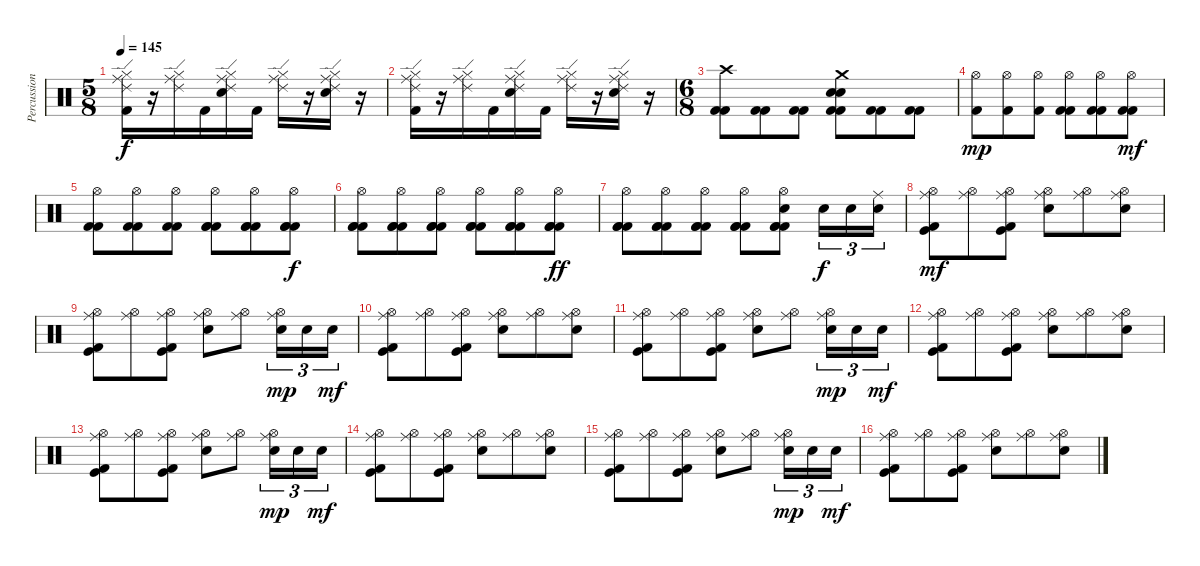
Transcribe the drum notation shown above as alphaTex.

\track ("Percussion" "Percussion") {instrument percussion}
\staff {score}
\articulation defaults
\ts (5 8)
\tempo 145
\clef neutral
\ks c
("Ride (middle)" "Kick (hit) 2" "Ride (edge) 2" "Hi-Hat (closed)").16{dy f} r.16 ("Ride (middle)" "Ride (edge) 2" "Hi-Hat (closed)").16 "Kick (hit) 2".16 ("Ride (middle)" "Electric Snare (hit)" "Ride (edge) 2" "Hi-Hat (closed)").16 "Kick (hit) 2".16 ("Ride (middle)" "Ride (edge) 2" "Hi-Hat (closed)").16 r.16 ("Ride (middle)" "Electric Snare (hit)" "Ride (edge) 2" "Hi-Hat (closed)").16 r.16 |
("Ride (middle)" "Kick (hit) 2" "Ride (edge) 2" "Hi-Hat (closed)").16 r.16 ("Ride (middle)" "Ride (edge) 2" "Hi-Hat (closed)").16 "Kick (hit) 2".16 ("Ride (middle)" "Electric Snare (hit)" "Ride (edge) 2" "Hi-Hat (closed)").16 "Kick (hit) 2".16 ("Ride (middle)" "Ride (edge) 2" "Hi-Hat (closed)").16 r.16 ("Ride (middle)" "Electric Snare (hit)" "Ride (edge) 2" "Hi-Hat (closed)").16 r.16 |
\ts (6 8)
("Crash high (hit)" "Kick (hit) 2" "Kick (hit) 2").8 ("Kick (hit) 2" "Kick (hit) 2").8 ("Kick (hit) 2" "Kick (hit) 2").8 ("Crash medium (hit)" "Electric Snare (hit)" "Electric Snare (hit)" "Kick (hit) 2" "Kick (hit) 2").8 ("Kick (hit) 2" "Kick (hit) 2").8 ("Kick (hit) 2" "Kick (hit) 2").8 |
("Hi-Hat (open)" "Kick (hit) 2").8{dy mp} ("Hi-Hat (open)" "Kick (hit) 2").8 ("Hi-Hat (open)" "Kick (hit) 2").8 ("Hi-Hat (open)" "Kick (hit) 2" "Kick (hit) 2").8 ("Hi-Hat (open)" "Kick (hit) 2" "Kick (hit) 2").8 ("Hi-Hat (open)" "Kick (hit) 2" "Kick (hit) 2").8{dy mf} |
("Hi-Hat (open)" "Kick (hit) 2" "Kick (hit) 2").8 ("Hi-Hat (open)" "Kick (hit) 2" "Kick (hit) 2").8 ("Hi-Hat (open)" "Kick (hit) 2" "Kick (hit) 2").8 ("Hi-Hat (open)" "Kick (hit) 2" "Kick (hit) 2" "Kick (hit) 2").8 ("Hi-Hat (open)" "Kick (hit) 2" "Kick (hit) 2" "Kick (hit) 2").8 ("Hi-Hat (open)" "Kick (hit) 2" "Kick (hit) 2" "Kick (hit) 2").8{dy f} |
("Hi-Hat (open)" "Kick (hit) 2" "Kick (hit) 2" "Kick (hit) 2").8 ("Hi-Hat (open)" "Kick (hit) 2" "Kick (hit) 2" "Kick (hit) 2").8 ("Hi-Hat (open)" "Kick (hit) 2" "Kick (hit) 2" "Kick (hit) 2").8 ("Hi-Hat (open)" "Kick (hit) 2" "Kick (hit) 2" "Kick (hit) 2").8 ("Hi-Hat (open)" "Kick (hit) 2" "Kick (hit) 2" "Kick (hit) 2").8 ("Hi-Hat (open)" "Kick (hit) 2" "Kick (hit) 2" "Kick (hit) 2").8{dy ff} |
("Hi-Hat (open)" "Kick (hit) 2" "Kick (hit) 2" "Kick (hit) 2").8 ("Hi-Hat (open)" "Kick (hit) 2" "Kick (hit) 2" "Kick (hit) 2").8 ("Hi-Hat (open)" "Kick (hit) 2" "Kick (hit) 2" "Kick (hit) 2").8 ("Hi-Hat (open)" "Kick (hit) 2" "Kick (hit) 2" "Kick (hit) 2").8 ("Hi-Hat (open)" "Electric Snare (hit)" "Kick (hit) 2" "Kick (hit) 2" "Kick (hit) 2").8 "Electric Snare (hit)".16{tu (3 2) dy f} "Electric Snare (hit)".16{tu (3 2)} ("Ride (middle)" "Electric Snare (hit)").16{tu (3 2)} |
("Ride (middle)" "Hi-Hat (open)" "Kick (hit)" "Kick (hit) 2").8{dy mf} ("Ride (middle)" "Hi-Hat (open)").8 ("Ride (middle)" "Hi-Hat (open)" "Kick (hit)" "Kick (hit) 2").8 ("Ride (middle)" "Hi-Hat (open)" "Electric Snare (hit)").8 ("Ride (middle)" "Hi-Hat (open)").8 ("Ride (middle)" "Hi-Hat (open)" "Electric Snare (hit)").8 |
("Ride (middle)" "Hi-Hat (open)" "Kick (hit)" "Kick (hit) 2").8 ("Ride (middle)" "Hi-Hat (open)").8 ("Ride (middle)" "Hi-Hat (open)" "Kick (hit)" "Kick (hit) 2").8 ("Ride (middle)" "Hi-Hat (open)" "Electric Snare (hit)").8 ("Ride (middle)" "Hi-Hat (open)").8 ("Ride (middle)" "Hi-Hat (open)" "Electric Snare (hit)").16{tu (3 2) dy mp} "Electric Snare (hit)".16{tu (3 2)} "Electric Snare (hit)".16{tu (3 2) dy mf} |
("Ride (middle)" "Hi-Hat (open)" "Kick (hit)" "Kick (hit) 2").8 ("Ride (middle)" "Hi-Hat (open)").8 ("Ride (middle)" "Hi-Hat (open)" "Kick (hit)" "Kick (hit) 2").8 ("Ride (middle)" "Hi-Hat (open)" "Electric Snare (hit)").8 ("Ride (middle)" "Hi-Hat (open)").8 ("Ride (middle)" "Hi-Hat (open)" "Electric Snare (hit)").8 |
("Ride (middle)" "Hi-Hat (open)" "Kick (hit)" "Kick (hit) 2").8 ("Ride (middle)" "Hi-Hat (open)").8 ("Ride (middle)" "Hi-Hat (open)" "Kick (hit)" "Kick (hit) 2").8 ("Ride (middle)" "Hi-Hat (open)" "Electric Snare (hit)").8 ("Ride (middle)" "Hi-Hat (open)").8 ("Ride (middle)" "Hi-Hat (open)" "Electric Snare (hit)").16{tu (3 2) dy mp} "Electric Snare (hit)".16{tu (3 2)} "Electric Snare (hit)".16{tu (3 2) dy mf} |
("Ride (middle)" "Hi-Hat (open)" "Kick (hit)" "Kick (hit) 2").8 ("Ride (middle)" "Hi-Hat (open)").8 ("Ride (middle)" "Hi-Hat (open)" "Kick (hit)" "Kick (hit) 2").8 ("Ride (middle)" "Hi-Hat (open)" "Electric Snare (hit)").8 ("Ride (middle)" "Hi-Hat (open)").8 ("Ride (middle)" "Hi-Hat (open)" "Electric Snare (hit)").8 |
("Ride (middle)" "Hi-Hat (open)" "Kick (hit)" "Kick (hit) 2").8 ("Ride (middle)" "Hi-Hat (open)").8 ("Ride (middle)" "Hi-Hat (open)" "Kick (hit)" "Kick (hit) 2").8 ("Ride (middle)" "Hi-Hat (open)" "Electric Snare (hit)").8 ("Ride (middle)" "Hi-Hat (open)").8 ("Ride (middle)" "Hi-Hat (open)" "Electric Snare (hit)").16{tu (3 2) dy mp} "Electric Snare (hit)".16{tu (3 2)} "Electric Snare (hit)".16{tu (3 2) dy mf} |
("Ride (middle)" "Hi-Hat (open)" "Kick (hit)" "Kick (hit) 2").8 ("Ride (middle)" "Hi-Hat (open)").8 ("Ride (middle)" "Hi-Hat (open)" "Kick (hit)" "Kick (hit) 2").8 ("Ride (middle)" "Hi-Hat (open)" "Electric Snare (hit)").8 ("Ride (middle)" "Hi-Hat (open)").8 ("Ride (middle)" "Hi-Hat (open)" "Electric Snare (hit)").8 |
("Ride (middle)" "Hi-Hat (open)" "Kick (hit)" "Kick (hit) 2").8 ("Ride (middle)" "Hi-Hat (open)").8 ("Ride (middle)" "Hi-Hat (open)" "Kick (hit)" "Kick (hit) 2").8 ("Ride (middle)" "Hi-Hat (open)" "Electric Snare (hit)").8 ("Ride (middle)" "Hi-Hat (open)").8 ("Ride (middle)" "Hi-Hat (open)" "Electric Snare (hit)").16{tu (3 2) dy mp} "Electric Snare (hit)".16{tu (3 2)} "Electric Snare (hit)".16{tu (3 2) dy mf} |
("Ride (middle)" "Hi-Hat (open)" "Kick (hit)" "Kick (hit) 2").8 ("Ride (middle)" "Hi-Hat (open)").8 ("Ride (middle)" "Hi-Hat (open)" "Kick (hit)" "Kick (hit) 2").8 ("Ride (middle)" "Hi-Hat (open)" "Electric Snare (hit)").8 ("Ride (middle)" "Hi-Hat (open)").8 ("Ride (middle)" "Hi-Hat (open)" "Electric Snare (hit)").8
